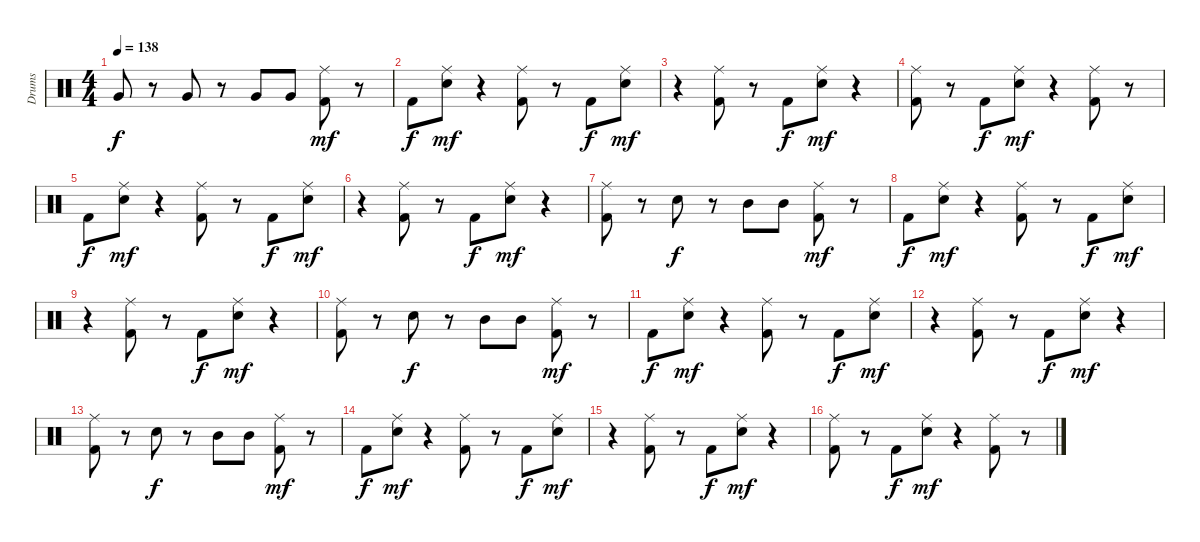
\track ("Drums" "Drums") {instrument percussion}
\staff {score}
\articulation defaults
\ts (4 4)
\tempo 138
\clef neutral
\ks c "Very Low Tom (hit)".8{dy f}
r.8 "Very Low Tom (hit)".8 r.8 "Very Low Tom (hit)".8 "Very Low Tom (hit)".8 ("Ride (middle)" "Kick (hit) 2").8{dy mf} r.8 |
"Kick (hit) 2".8{dy f} ("Ride (middle)" "Snare (hit) 2").8{dy mf} r.4 ("Ride (middle)" "Kick (hit) 2").8 r.8 "Kick (hit) 2".8{dy f} ("Ride (middle)" "Snare (hit) 2").8{dy mf} |
r.4 ("Ride (middle)" "Kick (hit) 2").8 r.8 "Kick (hit) 2".8{dy f} ("Ride (middle)" "Snare (hit) 2").8{dy mf} r.4 |
("Ride (middle)" "Kick (hit) 2").8 r.8 "Kick (hit) 2".8{dy f} ("Ride (middle)" "Snare (hit) 2").8{dy mf} r.4 ("Ride (middle)" "Kick (hit) 2").8 r.8 |
"Kick (hit) 2".8{dy f} ("Ride (middle)" "Snare (hit) 2").8{dy mf} r.4 ("Ride (middle)" "Kick (hit) 2").8 r.8 "Kick (hit) 2".8{dy f} ("Ride (middle)" "Snare (hit) 2").8{dy mf} |
r.4 ("Ride (middle)" "Kick (hit) 2").8 r.8 "Kick (hit) 2".8{dy f} ("Ride (middle)" "Snare (hit) 2").8{dy mf} r.4 |
("Ride (middle)" "Kick (hit) 2").8 r.8 "Snare (hit) 2".8{dy f} r.8 "Mid Tom (hit)".8 "Mid Tom (hit)".8 ("Ride (middle)" "Kick (hit) 2").8{dy mf} r.8 |
"Kick (hit) 2".8{dy f} ("Ride (middle)" "Snare (hit) 2").8{dy mf} r.4 ("Ride (middle)" "Kick (hit) 2").8 r.8 "Kick (hit) 2".8{dy f} ("Ride (middle)" "Snare (hit) 2").8{dy mf} |
r.4 ("Ride (middle)" "Kick (hit) 2").8 r.8 "Kick (hit) 2".8{dy f} ("Ride (middle)" "Snare (hit) 2").8{dy mf} r.4 |
("Ride (middle)" "Kick (hit) 2").8 r.8 "Snare (hit) 2".8{dy f} r.8 "Mid Tom (hit)".8 "Mid Tom (hit)".8 ("Ride (middle)" "Kick (hit) 2").8{dy mf} r.8 |
"Kick (hit) 2".8{dy f} ("Ride (middle)" "Snare (hit) 2").8{dy mf} r.4 ("Ride (middle)" "Kick (hit) 2").8 r.8 "Kick (hit) 2".8{dy f} ("Ride (middle)" "Snare (hit) 2").8{dy mf} |
r.4 ("Ride (middle)" "Kick (hit) 2").8 r.8 "Kick (hit) 2".8{dy f} ("Ride (middle)" "Snare (hit) 2").8{dy mf} r.4 |
("Ride (middle)" "Kick (hit) 2").8 r.8 "Snare (hit) 2".8{dy f} r.8 "Mid Tom (hit)".8 "Mid Tom (hit)".8 ("Ride (middle)" "Kick (hit) 2").8{dy mf} r.8 |
"Kick (hit) 2".8{dy f} ("Ride (middle)" "Snare (hit) 2").8{dy mf} r.4 ("Ride (middle)" "Kick (hit) 2").8 r.8 "Kick (hit) 2".8{dy f} ("Ride (middle)" "Snare (hit) 2").8{dy mf} |
r.4 ("Ride (middle)" "Kick (hit) 2").8 r.8 "Kick (hit) 2".8{dy f} ("Ride (middle)" "Snare (hit) 2").8{dy mf} r.4 |
("Ride (middle)" "Kick (hit) 2").8 r.8 "Kick (hit) 2".8{dy f} ("Ride (middle)" "Snare (hit) 2").8{dy mf} r.4 ("Ride (middle)" "Kick (hit) 2").8 r.8
